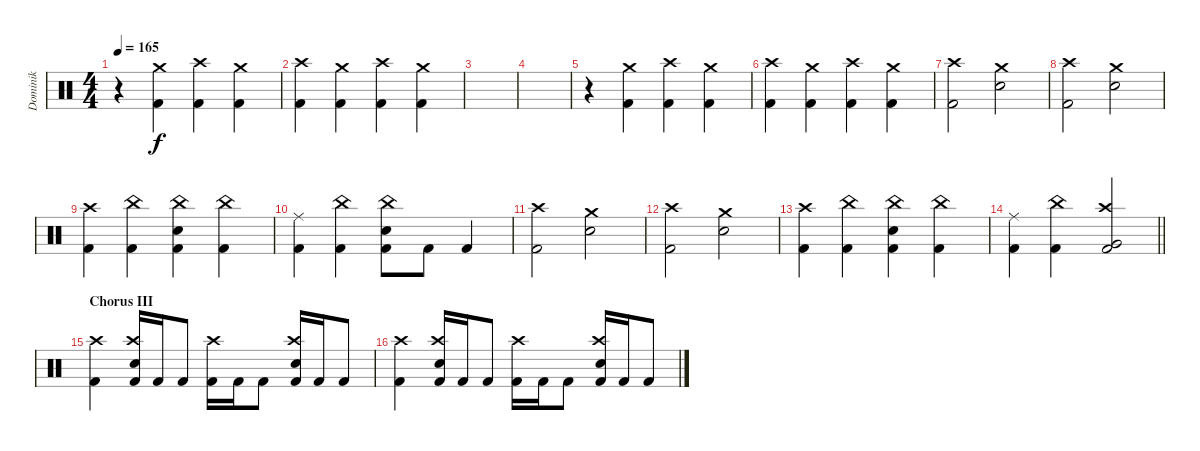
\track ("Dominik" "Dominik") {instrument percussion}
\staff {score}
\articulation defaults
\ts (4 4)
\tempo 165
\clef neutral
\ks c
r.4{dy f} ("Crash medium (hit)" "Kick (hit) 2").4 ("Crash high (hit)" "Kick (hit) 2").4 ("Crash medium (hit)" "Kick (hit) 2").4 |
("Crash high (hit)" "Kick (hit) 2").4 ("Crash medium (hit)" "Kick (hit) 2").4 ("Crash high (hit)" "Kick (hit) 2").4 ("Crash medium (hit)" "Kick (hit) 2").4 |
|
|
r.4 ("Crash medium (hit)" "Kick (hit) 2").4 ("Crash high (hit)" "Kick (hit) 2").4 ("Crash medium (hit)" "Kick (hit) 2").4 |
("Crash high (hit)" "Kick (hit) 2").4 ("Crash medium (hit)" "Kick (hit) 2").4 ("Crash high (hit)" "Kick (hit) 2").4 ("Crash medium (hit)" "Kick (hit) 2").4 |
("Crash high (hit)" "Kick (hit) 2").2 ("Crash medium (hit)" "Electric Snare (hit)").2 |
("Crash high (hit)" "Kick (hit) 2").2 ("Crash medium (hit)" "Electric Snare (hit)").2 |
("Crash high (hit)" "Kick (hit) 2").4 ("China (hit)" "Kick (hit) 2").4 ("China (hit)" "Electric Snare (hit)" "Kick (hit) 2").4 ("China (hit)" "Kick (hit) 2").4 |
("Ride (middle)" "Kick (hit) 2").4 ("China (hit)" "Kick (hit) 2").4 ("China (hit)" "Electric Snare (hit)" "Kick (hit) 2").8 "Kick (hit) 2".8 "Kick (hit) 2".4 |
("Crash high (hit)" "Kick (hit) 2").2 ("Crash medium (hit)" "Electric Snare (hit)").2 |
("Crash high (hit)" "Kick (hit) 2").2 ("Crash medium (hit)" "Electric Snare (hit)").2 |
("Crash high (hit)" "Kick (hit) 2").4 ("China (hit)" "Kick (hit) 2").4 ("China (hit)" "Electric Snare (hit)" "Kick (hit) 2").4 ("China (hit)" "Kick (hit) 2").4 |
\barLineRight lightlight
("Ride (middle)" "Kick (hit) 2").4 ("China (hit)" "Kick (hit) 2").4 ("Crash high (hit)" "Very Low Tom (hit)" "Kick (hit) 2").2 |
\section ("" "Chorus III")
("Crash high (hit)" "Kick (hit) 2").4 ("Crash high (hit)" "Electric Snare (hit)" "Kick (hit) 2").16 "Kick (hit) 2".16 "Kick (hit) 2".8 ("Crash high (hit)" "Kick (hit) 2").16 "Kick (hit) 2".16 "Kick (hit) 2".8 ("Crash high (hit)" "Electric Snare (hit)" "Kick (hit) 2").16 "Kick (hit) 2".16 "Kick (hit) 2".8 |
("Crash high (hit)" "Kick (hit) 2").4 ("Crash high (hit)" "Electric Snare (hit)" "Kick (hit) 2").16 "Kick (hit) 2".16 "Kick (hit) 2".8 ("Crash high (hit)" "Kick (hit) 2").16 "Kick (hit) 2".16 "Kick (hit) 2".8 ("Crash high (hit)" "Electric Snare (hit)" "Kick (hit) 2").16 "Kick (hit) 2".16 "Kick (hit) 2".8
